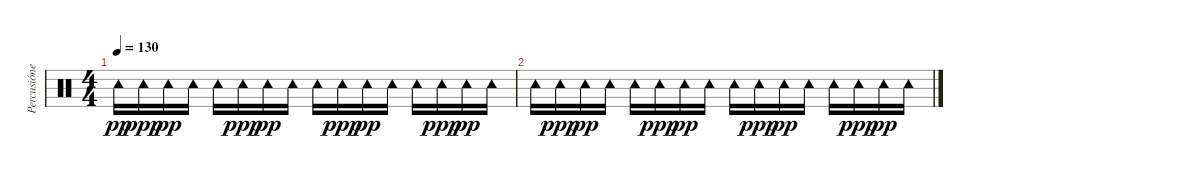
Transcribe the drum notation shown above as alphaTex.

\track ("Percusiónes" "Percusióne") {instrument percussion}
\staff {score}
\articulation defaults
\ts (4 4)
\tempo 130
\clef neutral
\ks c "Tambourine (hit)".16{dy pp} "Tambourine (hit)".16{dy ppp} "Tambourine (hit)".16{dy pp} "Tambourine (hit)".16 "Tambourine (hit)".16 "Tambourine (hit)".16{dy ppp} "Tambourine (hit)".16{dy pp} "Tambourine (hit)".16 "Tambourine (hit)".16 "Tambourine (hit)".16{dy ppp} "Tambourine (hit)".16{dy pp} "Tambourine (hit)".16 "Tambourine (hit)".16 "Tambourine (hit)".16{dy ppp} "Tambourine (hit)".16{dy pp} "Tambourine (hit)".16
|
"Tambourine (hit)".16 "Tambourine (hit)".16{dy ppp} "Tambourine (hit)".16{dy pp} "Tambourine (hit)".16 "Tambourine (hit)".16 "Tambourine (hit)".16{dy ppp} "Tambourine (hit)".16{dy pp} "Tambourine (hit)".16 "Tambourine (hit)".16 "Tambourine (hit)".16{dy ppp} "Tambourine (hit)".16{dy pp} "Tambourine (hit)".16 "Tambourine (hit)".16 "Tambourine (hit)".16{dy ppp} "Tambourine (hit)".16{dy pp} "Tambourine (hit)".16
